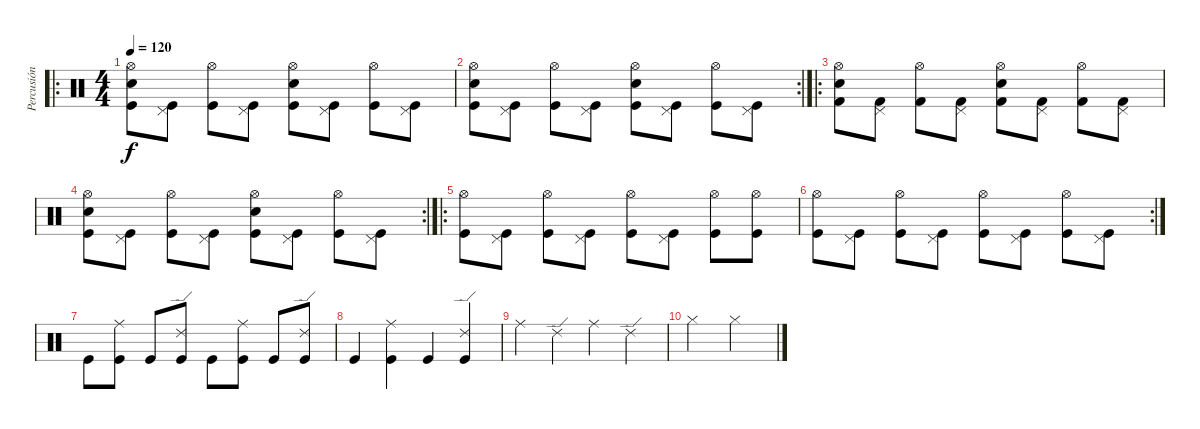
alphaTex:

\track ("Percusión" "Percusión") {instrument percussion}
\staff {score}
\articulation defaults
\ro
\ts (4 4)
\tempo 120
\clef neutral
\ks c
("Hi-Hat (open)" "Snare (hit) 2" "Kick (hit)").8{dy f} ("Pedal Hi-Hat (hit)" "Kick (hit)").8 ("Hi-Hat (open)" "Kick (hit)").8 ("Pedal Hi-Hat (hit)" "Kick (hit)").8 ("Hi-Hat (open)" "Snare (hit) 2" "Kick (hit)").8 ("Pedal Hi-Hat (hit)" "Kick (hit)").8 ("Hi-Hat (open)" "Kick (hit)").8 ("Pedal Hi-Hat (hit)" "Kick (hit)").8 |
\rc 2
("Hi-Hat (open)" "Snare (hit) 2" "Kick (hit)").8 ("Pedal Hi-Hat (hit)" "Kick (hit)").8 ("Hi-Hat (open)" "Kick (hit)").8 ("Pedal Hi-Hat (hit)" "Kick (hit)").8 ("Hi-Hat (open)" "Snare (hit) 2" "Kick (hit)").8 ("Pedal Hi-Hat (hit)" "Kick (hit)").8 ("Hi-Hat (open)" "Kick (hit)").8 ("Pedal Hi-Hat (hit)" "Kick (hit)").8 |
\ro
("Hi-Hat (open)" "Snare (hit) 2" "Kick (hit) 2").8 ("Pedal Hi-Hat (hit)" "Kick (hit) 2").8 ("Hi-Hat (open)" "Kick (hit) 2").8 ("Pedal Hi-Hat (hit)" "Kick (hit) 2").8 ("Hi-Hat (open)" "Snare (hit) 2" "Kick (hit) 2").8 ("Pedal Hi-Hat (hit)" "Kick (hit) 2").8 ("Hi-Hat (open)" "Kick (hit) 2").8 ("Pedal Hi-Hat (hit)" "Kick (hit) 2").8 |
\rc 2
("Hi-Hat (open)" "Snare (hit) 2" "Kick (hit)").8 ("Pedal Hi-Hat (hit)" "Kick (hit)").8 ("Hi-Hat (open)" "Kick (hit)").8 ("Pedal Hi-Hat (hit)" "Kick (hit)").8 ("Hi-Hat (open)" "Snare (hit) 2" "Kick (hit)").8 ("Pedal Hi-Hat (hit)" "Kick (hit)").8 ("Hi-Hat (open)" "Kick (hit)").8 ("Pedal Hi-Hat (hit)" "Kick (hit)").8 |
\ro
("Hi-Hat (open)" "Kick (hit)").8 ("Pedal Hi-Hat (hit)" "Kick (hit)").8 ("Hi-Hat (open)" "Kick (hit)").8 ("Pedal Hi-Hat (hit)" "Kick (hit)").8 ("Hi-Hat (open)" "Kick (hit)").8 ("Pedal Hi-Hat (hit)" "Kick (hit)").8 ("Hi-Hat (open)" "Kick (hit)").8 ("Hi-Hat (open)" "Kick (hit)").8 |
\rc 2
("Hi-Hat (open)" "Kick (hit)").8 ("Pedal Hi-Hat (hit)" "Kick (hit)").8 ("Hi-Hat (open)" "Kick (hit)").8 ("Pedal Hi-Hat (hit)" "Kick (hit)").8 ("Hi-Hat (open)" "Kick (hit)").8 ("Pedal Hi-Hat (hit)" "Kick (hit)").8 ("Hi-Hat (open)" "Kick (hit)").8 ("Pedal Hi-Hat (hit)" "Kick (hit)").8 |
"Kick (hit)".8 ("Ride (middle)" "Kick (hit)").8 "Kick (hit)".8 ("Ride (edge) 2" "Kick (hit)").8 "Kick (hit)".8 ("Ride (middle)" "Kick (hit)").8 "Kick (hit)".8 ("Ride (edge) 2" "Kick (hit)").8 |
"Kick (hit)".4 ("Ride (middle)" "Kick (hit)").4 "Kick (hit)".4 ("Ride (edge) 2" "Kick (hit)").4 |
"Ride (middle)".4 "Ride (edge) 2".4 "Ride (middle)".4 "Ride (edge) 2".4 |
"Hi-Hat (closed)".2 "Hi-Hat (closed)".2
